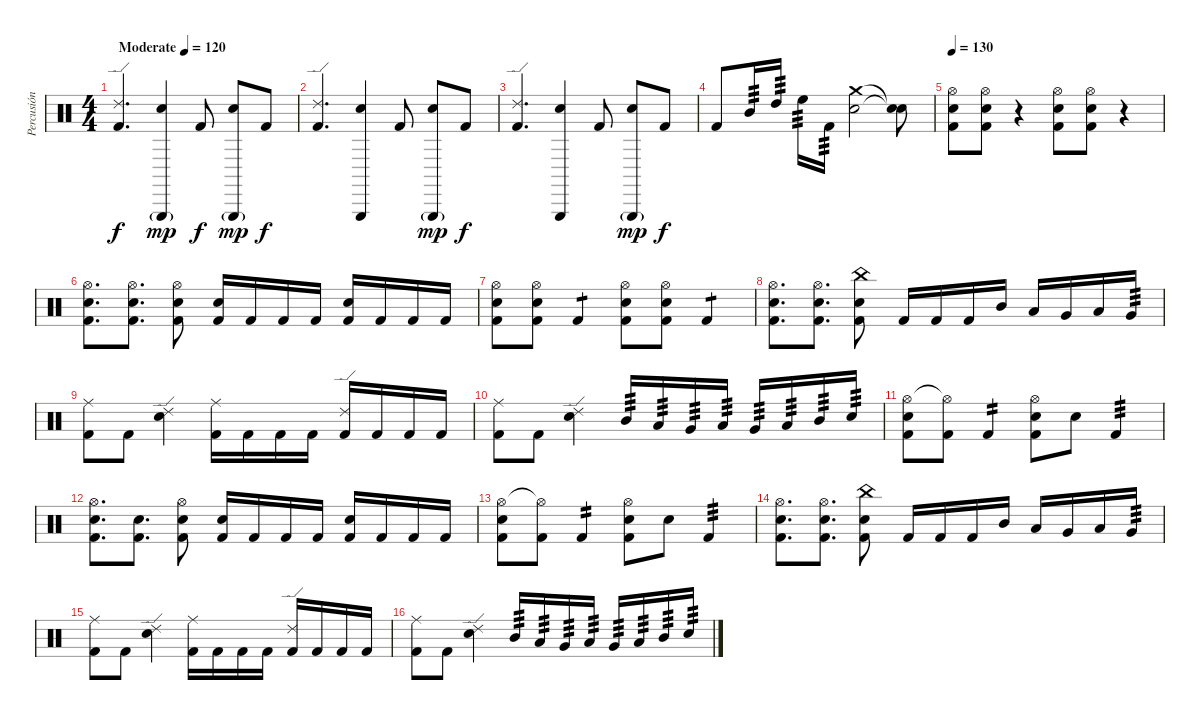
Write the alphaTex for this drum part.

\track ("Percusión" "Percusión") {instrument percussion}
\staff {score}
\articulation defaults
\ts (4 4)
\tempo (120 "Moderate")
\clef neutral
\ks c
("Ride (edge) 2" "Kick (hit) 2").4{d dy f} ("Triangle (hit)"{g} "Snare (hit) 2").4{dy mp} "Kick (hit) 2".8{dy f} ("Triangle (hit)"{g} "Snare (hit) 2").8{dy mp} "Kick (hit) 2".8{dy f} |
("Ride (edge) 2" "Kick (hit) 2").4{d} ("Triangle (hit)" "Snare (hit) 2").4 "Kick (hit) 2".8 ("Triangle (hit)"{g} "Snare (hit) 2").8{dy mp} "Kick (hit) 2".8{dy f} |
("Ride (edge) 2" "Kick (hit) 2").4{d} ("Triangle (hit)" "Snare (hit) 2").4 "Kick (hit) 2".8 ("Triangle (hit)"{g} "Snare (hit) 2").8{dy mp} "Kick (hit) 2".8{dy f} |
"Kick (hit) 2".8 "Mid Tom (hit)".16{tp 3} "High Tom (hit)".16{tp 3} "High Floor Tom (hit)".16{tp 3} "Kick (hit) 2".16{tp 3} ("Crash medium (hit)" "Electric Snare (hit)").2 ("Snare (hit)"{t} "Snare (hit)"{t}).8 |
\tempo 130
("Hi-Hat (open)" "Snare (hit) 2" "Kick (hit) 2").8 ("Hi-Hat (open)" "Snare (hit) 2" "Kick (hit) 2").8 r.4 ("Hi-Hat (open)" "Snare (hit) 2" "Kick (hit) 2").8 ("Hi-Hat (open)" "Snare (hit) 2" "Kick (hit) 2").8 r.4 |
("Hi-Hat (open)" "Snare (hit) 2" "Kick (hit) 2").8{d} ("Hi-Hat (open)" "Snare (hit) 2" "Kick (hit) 2").8{d} ("Hi-Hat (open)" "Snare (hit) 2" "Kick (hit) 2").8 ("Snare (hit) 2" "Kick (hit) 2").16 "Kick (hit) 2".16 "Kick (hit) 2".16 "Kick (hit) 2".16 ("Snare (hit) 2" "Kick (hit) 2").16 "Kick (hit) 2".16 "Kick (hit) 2".16 "Kick (hit) 2".16 |
("Hi-Hat (open)" "Snare (hit) 2" "Kick (hit) 2").8 ("Hi-Hat (open)" "Snare (hit) 2" "Kick (hit) 2").8 "Kick (hit) 2".4{tp 1} ("Hi-Hat (open)" "Snare (hit) 2" "Kick (hit) 2").8 ("Hi-Hat (open)" "Snare (hit) 2" "Kick (hit) 2").8 "Kick (hit) 2".4{tp 1} |
("Hi-Hat (open)" "Snare (hit) 2" "Kick (hit) 2").8{d} ("Hi-Hat (open)" "Snare (hit) 2" "Kick (hit) 2").8{d} ("China (hit)" "Snare (hit) 2" "Kick (hit) 2").8 "Kick (hit) 2".16 "Kick (hit) 2".16 "Kick (hit) 2".16 "Mid Tom (hit)".16 "Low Tom (hit)".16 "Very Low Tom (hit)".16 "Low Floor Tom (hit)".16 "Very Low Tom (hit)".16{tp 3} |
("Ride (middle)" "Kick (hit) 2").8 "Kick (hit) 2".8 ("Ride (edge) 2" "Snare (hit) 2").4 ("Ride (middle)" "Kick (hit) 2").16 "Kick (hit) 2".16 "Kick (hit) 2".16 "Kick (hit) 2".16 ("Ride (edge) 2" "Kick (hit) 2").16 "Kick (hit) 2".16 "Kick (hit) 2".16 "Kick (hit) 2".16 |
("Ride (middle)" "Kick (hit) 2").8 "Kick (hit) 2".8 ("Ride (edge) 2" "Snare (hit) 2").4 "Mid Tom (hit)".16{tp 3} "Low Tom (hit)".16{tp 3} "Very Low Tom (hit)".16{tp 3} "Low Floor Tom (hit)".16{tp 3} "Very Low Tom (hit)".16{tp 3} "Low Tom (hit)".16{tp 3} "Mid Tom (hit)".16{tp 3} "Snare (hit) 2".16{tp 3} |
("Hi-Hat (open)" "Snare (hit) 2" "Kick (hit) 2").8 ("Hi-Hat (open)"{t} "Kick (hit) 2").8 "Kick (hit) 2".4{tp 2} ("Hi-Hat (open)" "Snare (hit) 2" "Kick (hit) 2").8 "Snare (hit) 2".8 "Kick (hit) 2".4{tp 3} |
("Hi-Hat (open)" "Snare (hit) 2" "Kick (hit) 2").8{d} ("Snare (hit) 2" "Kick (hit) 2").8{d} ("Hi-Hat (open)" "Snare (hit) 2" "Kick (hit) 2").8 ("Snare (hit) 2" "Kick (hit) 2").16 "Kick (hit) 2".16 "Kick (hit) 2".16 "Kick (hit) 2".16 ("Snare (hit) 2" "Kick (hit) 2").16 "Kick (hit) 2".16 "Kick (hit) 2".16 "Kick (hit) 2".16 |
("Hi-Hat (open)" "Snare (hit) 2" "Kick (hit) 2").8 ("Hi-Hat (open)"{t} "Kick (hit) 2").8 "Kick (hit) 2".4{tp 2} ("Hi-Hat (open)" "Snare (hit) 2" "Kick (hit) 2").8 "Snare (hit) 2".8 "Kick (hit) 2".4{tp 3} |
("Hi-Hat (open)" "Snare (hit) 2" "Kick (hit) 2").8{d} ("Hi-Hat (open)" "Snare (hit) 2" "Kick (hit) 2").8{d} ("China (hit)" "Snare (hit) 2" "Kick (hit) 2").8 "Kick (hit) 2".16 "Kick (hit) 2".16 "Kick (hit) 2".16 "Mid Tom (hit)".16 "Low Tom (hit)".16 "Very Low Tom (hit)".16 "Low Floor Tom (hit)".16 "Very Low Tom (hit)".16{tp 3} |
("Ride (middle)" "Kick (hit) 2").8 "Kick (hit) 2".8 ("Ride (edge) 2" "Snare (hit) 2").4 ("Ride (middle)" "Kick (hit) 2").16 "Kick (hit) 2".16 "Kick (hit) 2".16 "Kick (hit) 2".16 ("Ride (edge) 2" "Kick (hit) 2").16 "Kick (hit) 2".16 "Kick (hit) 2".16 "Kick (hit) 2".16 |
("Ride (middle)" "Kick (hit) 2").8 "Kick (hit) 2".8 ("Ride (edge) 2" "Snare (hit) 2").4 "Mid Tom (hit)".16{tp 3} "Low Tom (hit)".16{tp 3} "Very Low Tom (hit)".16{tp 3} "Low Floor Tom (hit)".16{tp 3} "Very Low Tom (hit)".16{tp 3} "Low Tom (hit)".16{tp 3} "Mid Tom (hit)".16{tp 3} "Snare (hit) 2".16{tp 3}
